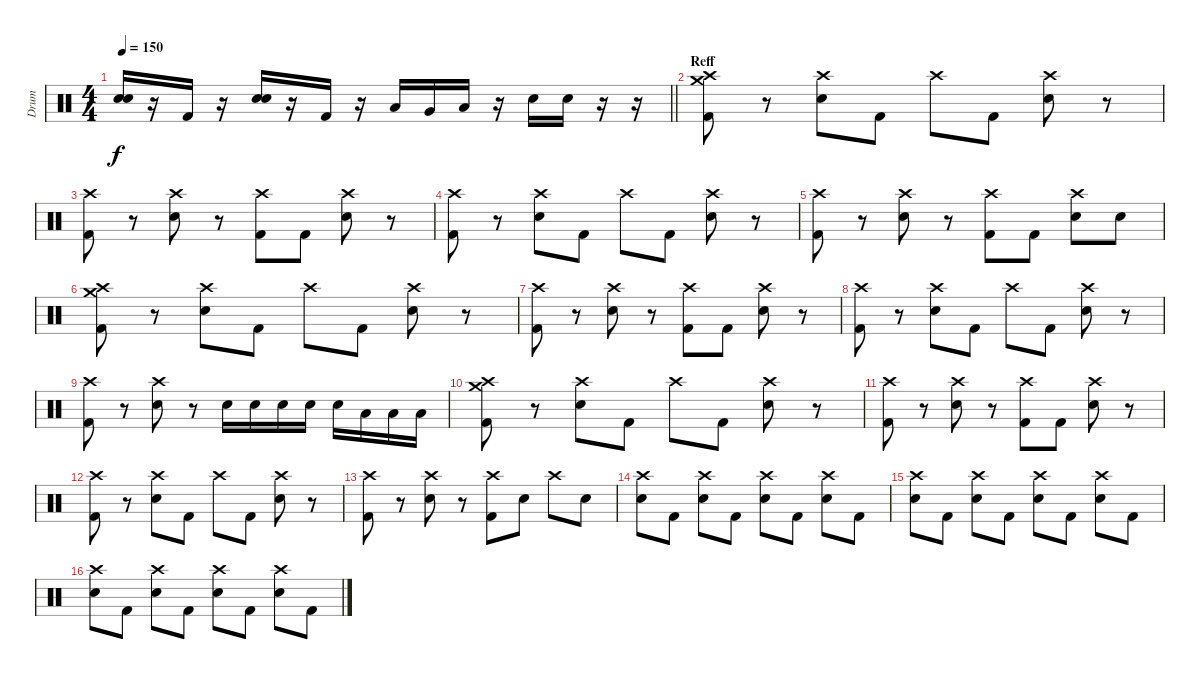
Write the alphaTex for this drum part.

\track ("Drum" "Drum") {instrument percussion}
\staff {score}
\articulation defaults
\ts (4 4)
\tempo 150
\clef neutral
\barLineRight lightlight
\ks c
("Electric Snare (hit)" "Electric Snare (hit)").16{dy f} r.16 "Kick (hit) 2".16 r.16 ("Electric Snare (hit)" "Electric Snare (hit)").16 r.16 "Kick (hit) 2".16 r.16 "Low Floor Tom (hit)".16 "Very Low Tom (hit)".16 "Low Floor Tom (hit)".16 r.16 "Electric Snare (hit)".16 "Electric Snare (hit)".16 r.16 r.16 |
\section ("" "Reff")
("Crash high (hit)" "Kick (hit) 2" "Crash medium (hit)").8 r.8 ("Crash high (hit)" "Electric Snare (hit)").8 "Kick (hit) 2".8 "Crash high (hit)".8 "Kick (hit) 2".8 ("Crash high (hit)" "Electric Snare (hit)").8 r.8 |
("Crash high (hit)" "Kick (hit) 2").8 r.8 ("Crash high (hit)" "Electric Snare (hit)").8 r.8 ("Crash high (hit)" "Kick (hit) 2").8 "Kick (hit) 2".8 ("Crash high (hit)" "Electric Snare (hit)").8 r.8 |
("Crash high (hit)" "Kick (hit) 2").8 r.8 ("Crash high (hit)" "Electric Snare (hit)").8 "Kick (hit) 2".8 "Crash high (hit)".8 "Kick (hit) 2".8 ("Crash high (hit)" "Electric Snare (hit)").8 r.8 |
("Crash high (hit)" "Kick (hit) 2").8 r.8 ("Crash high (hit)" "Electric Snare (hit)").8 r.8 ("Crash high (hit)" "Kick (hit) 2").8 "Kick (hit) 2".8 ("Crash high (hit)" "Electric Snare (hit)").8 "Electric Snare (hit)".8 |
("Crash high (hit)" "Kick (hit) 2" "Crash medium (hit)").8 r.8 ("Crash high (hit)" "Electric Snare (hit)").8 "Kick (hit) 2".8 "Crash high (hit)".8 "Kick (hit) 2".8 ("Crash high (hit)" "Electric Snare (hit)").8 r.8 |
("Crash high (hit)" "Kick (hit) 2").8 r.8 ("Crash high (hit)" "Electric Snare (hit)").8 r.8 ("Crash high (hit)" "Kick (hit) 2").8 "Kick (hit) 2".8 ("Crash high (hit)" "Electric Snare (hit)").8 r.8 |
("Crash high (hit)" "Kick (hit) 2").8 r.8 ("Crash high (hit)" "Electric Snare (hit)").8 "Kick (hit) 2".8 "Crash high (hit)".8 "Kick (hit) 2".8 ("Crash high (hit)" "Electric Snare (hit)").8 r.8 |
("Crash high (hit)" "Kick (hit) 2").8 r.8 ("Crash high (hit)" "Electric Snare (hit)").8 r.8 "Electric Snare (hit)".16 "Electric Snare (hit)".16 "Electric Snare (hit)".16 "Electric Snare (hit)".16 "Electric Snare (hit)".16 "Low Floor Tom (hit)".16 "Low Floor Tom (hit)".16 "Low Floor Tom (hit)".16 |
("Crash high (hit)" "Kick (hit) 2" "Crash medium (hit)").8 r.8 ("Crash high (hit)" "Electric Snare (hit)").8 "Kick (hit) 2".8 "Crash high (hit)".8 "Kick (hit) 2".8 ("Crash high (hit)" "Electric Snare (hit)").8 r.8 |
("Crash high (hit)" "Kick (hit) 2").8 r.8 ("Crash high (hit)" "Electric Snare (hit)").8 r.8 ("Crash high (hit)" "Kick (hit) 2").8 "Kick (hit) 2".8 ("Crash high (hit)" "Electric Snare (hit)").8 r.8 |
("Crash high (hit)" "Kick (hit) 2").8 r.8 ("Crash high (hit)" "Electric Snare (hit)").8 "Kick (hit) 2".8 "Crash high (hit)".8 "Kick (hit) 2".8 ("Crash high (hit)" "Electric Snare (hit)").8 r.8 |
("Crash high (hit)" "Kick (hit) 2").8 r.8 ("Crash high (hit)" "Electric Snare (hit)").8 r.8 ("Crash high (hit)" "Kick (hit) 2").8 "Electric Snare (hit)".8 "Crash high (hit)".8 "Electric Snare (hit)".8 |
("Crash high (hit)" "Electric Snare (hit)").8 "Kick (hit) 2".8 ("Crash high (hit)" "Electric Snare (hit)").8 "Kick (hit) 2".8 ("Crash high (hit)" "Electric Snare (hit)").8 "Kick (hit) 2".8 ("Crash high (hit)" "Electric Snare (hit)").8 "Kick (hit) 2".8 |
("Crash high (hit)" "Electric Snare (hit)").8 "Kick (hit) 2".8 ("Crash high (hit)" "Electric Snare (hit)").8 "Kick (hit) 2".8 ("Crash high (hit)" "Electric Snare (hit)").8 "Kick (hit) 2".8 ("Crash high (hit)" "Electric Snare (hit)").8 "Kick (hit) 2".8 |
("Crash high (hit)" "Electric Snare (hit)").8 "Kick (hit) 2".8 ("Crash high (hit)" "Electric Snare (hit)").8 "Kick (hit) 2".8 ("Crash high (hit)" "Electric Snare (hit)").8 "Kick (hit) 2".8 ("Crash high (hit)" "Electric Snare (hit)").8 "Kick (hit) 2".8
